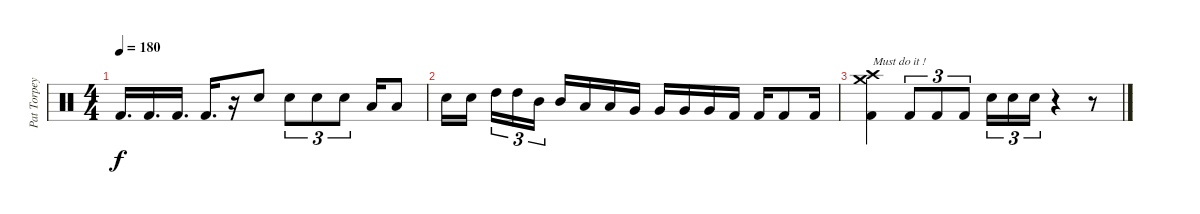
\track ("Pat Torpey" "Pat Torpey") {instrument percussion}
\staff {score}
\articulation defaults
\ts (4 4)
\tempo 180
\clef neutral
\ks c "Kick (hit) 2".16{d dy f} "Kick (hit) 2".16{d} "Kick (hit) 2".16{d} "Kick (hit) 2".16{d}
r.16 "Electric Snare (hit)".8 "Electric Snare (hit)".8{tu (3 2)} "Electric Snare (hit)".8{tu (3 2)} "Electric Snare (hit)".8{tu (3 2)} "Low Tom (hit)".16 "Low Tom (hit)".8 |
"Electric Snare (hit)".16 "Electric Snare (hit)".16{beam splitsecondary} "High Tom (hit)".16{tu (3 2)} "High Tom (hit)".16{tu (3 2)} "Mid Tom (hit)".16{tu (3 2)} "Mid Tom (hit)".16 "Low Tom (hit)".16 "Low Tom (hit)".16 "Very Low Tom (hit)".16 "Very Low Tom (hit)".16 "Very Low Tom (hit)".16 "Very Low Tom (hit)".16 "Kick (hit) 2".16 "Kick (hit) 2".16 "Kick (hit) 2".8 "Kick (hit) 2".16 |
("Crash high (hit)" "Crash medium (hit)" "Kick (hit) 2").4{txt "Must do it !"} "Kick (hit) 2".8{tu (3 2)} "Kick (hit) 2".8{tu (3 2)} "Kick (hit) 2".8{tu (3 2)} "Electric Snare (hit)".16{tu (3 2)} "Electric Snare (hit)".16{tu (3 2)} "Electric Snare (hit)".16{tu (3 2)} r.4 r.8
